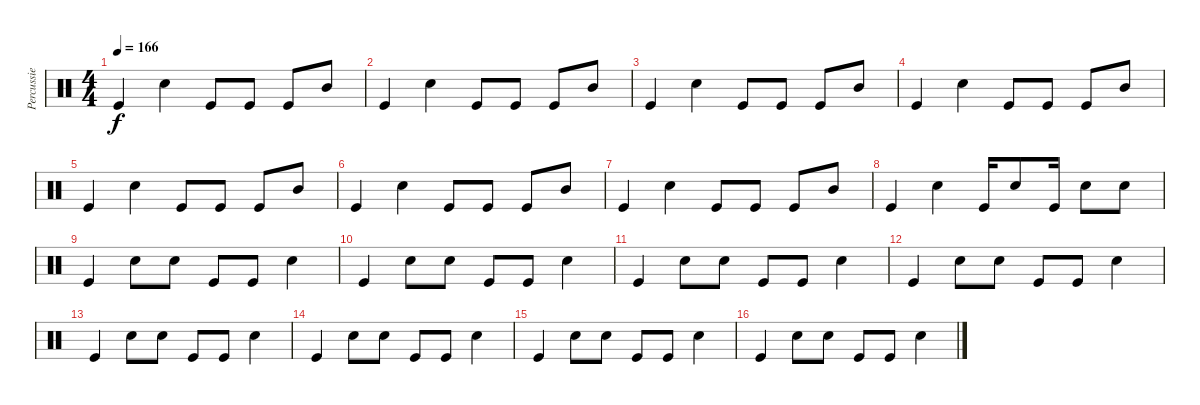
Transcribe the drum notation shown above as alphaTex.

\track ("Percussie" "Percussie") {instrument percussion}
\staff {score}
\articulation defaults
\ts (4 4)
\tempo 166
\clef neutral
\ks c "Kick (hit)".4{dy f} "Electric Snare (hit)".4 "Kick (hit)".8 "Kick (hit)".8 "Kick (hit)".8 "Mid Tom (hit)".8
|
"Kick (hit)".4 "Electric Snare (hit)".4 "Kick (hit)".8 "Kick (hit)".8 "Kick (hit)".8 "Mid Tom (hit)".8 |
"Kick (hit)".4 "Electric Snare (hit)".4 "Kick (hit)".8 "Kick (hit)".8 "Kick (hit)".8 "Mid Tom (hit)".8 |
"Kick (hit)".4 "Electric Snare (hit)".4 "Kick (hit)".8 "Kick (hit)".8 "Kick (hit)".8 "Mid Tom (hit)".8 |
"Kick (hit)".4 "Electric Snare (hit)".4 "Kick (hit)".8 "Kick (hit)".8 "Kick (hit)".8 "Mid Tom (hit)".8 |
"Kick (hit)".4 "Electric Snare (hit)".4 "Kick (hit)".8 "Kick (hit)".8 "Kick (hit)".8 "Mid Tom (hit)".8 |
"Kick (hit)".4 "Electric Snare (hit)".4 "Kick (hit)".8 "Kick (hit)".8 "Kick (hit)".8 "Mid Tom (hit)".8 |
"Kick (hit)".4 "Electric Snare (hit)".4 "Kick (hit)".16 "Electric Snare (hit)".8 "Kick (hit)".16 "Electric Snare (hit)".8 "Electric Snare (hit)".8 |
"Kick (hit)".4 "Electric Snare (hit)".8 "Electric Snare (hit)".8 "Kick (hit)".8 "Kick (hit)".8 "Electric Snare (hit)".4 |
"Kick (hit)".4 "Electric Snare (hit)".8 "Electric Snare (hit)".8 "Kick (hit)".8 "Kick (hit)".8 "Electric Snare (hit)".4 |
"Kick (hit)".4 "Electric Snare (hit)".8 "Electric Snare (hit)".8 "Kick (hit)".8 "Kick (hit)".8 "Electric Snare (hit)".4 |
"Kick (hit)".4 "Electric Snare (hit)".8 "Electric Snare (hit)".8 "Kick (hit)".8 "Kick (hit)".8 "Electric Snare (hit)".4 |
"Kick (hit)".4 "Electric Snare (hit)".8 "Electric Snare (hit)".8 "Kick (hit)".8 "Kick (hit)".8 "Electric Snare (hit)".4 |
"Kick (hit)".4 "Electric Snare (hit)".8 "Electric Snare (hit)".8 "Kick (hit)".8 "Kick (hit)".8 "Electric Snare (hit)".4 |
"Kick (hit)".4 "Electric Snare (hit)".8 "Electric Snare (hit)".8 "Kick (hit)".8 "Kick (hit)".8 "Electric Snare (hit)".4 |
"Kick (hit)".4 "Electric Snare (hit)".8 "Electric Snare (hit)".8 "Kick (hit)".8 "Kick (hit)".8 "Electric Snare (hit)".4
